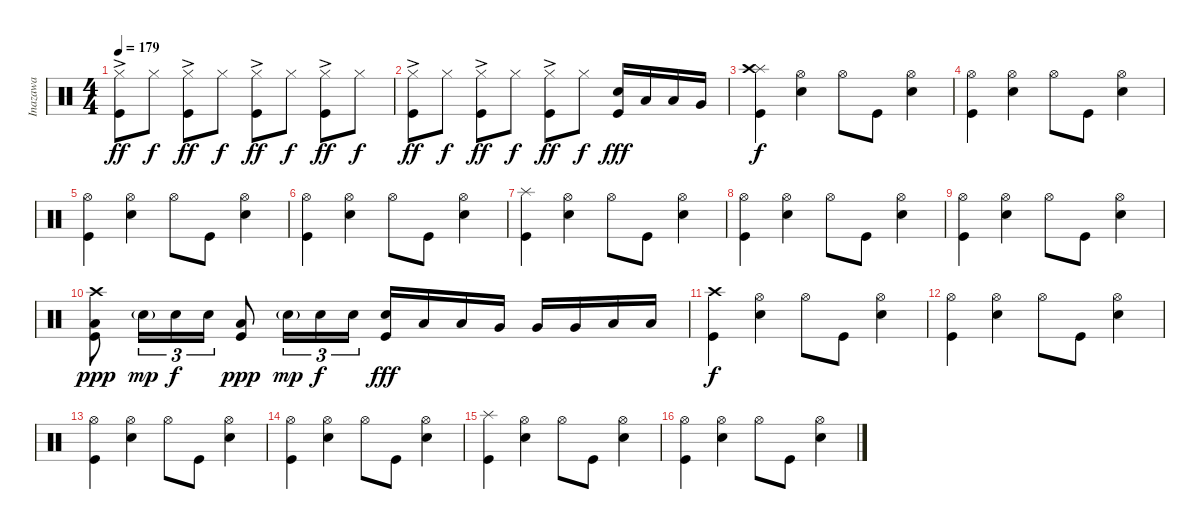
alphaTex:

\track ("Inazawa" "Inazawa") {instrument percussion}
\staff {score}
\articulation defaults
\ts (4 4)
\tempo 179
\clef neutral
\ks c
("Hi-Hat (closed)"{ac} "Kick (hit)").8{dy ff} "Hi-Hat (closed)".8{dy f} ("Hi-Hat (closed)"{ac} "Kick (hit)").8{dy ff} "Hi-Hat (closed)".8{dy f} ("Hi-Hat (closed)"{ac} "Kick (hit)").8{dy ff} "Hi-Hat (closed)".8{dy f} ("Hi-Hat (closed)"{ac} "Kick (hit)").8{dy ff} "Hi-Hat (closed)".8{dy f} |
("Hi-Hat (closed)"{ac} "Kick (hit)").8{dy ff} "Hi-Hat (closed)".8{dy f} ("Hi-Hat (closed)"{ac} "Kick (hit)").8{dy ff} "Hi-Hat (closed)".8{dy f} ("Hi-Hat (closed)"{ac} "Kick (hit)").8{dy ff} "Hi-Hat (closed)".8{dy f} ("Snare (hit) 2" "Kick (hit)").16{dy fff volume 14} "Low Tom (hit)".16 "Low Tom (hit)".16 "Very Low Tom (hit)".16 |
("Splash (hit)" "Crash high (hit)" "Kick (hit)").4{dy f} ("Hi-Hat (open)" "Snare (hit) 2").4 "Hi-Hat (open)".8 "Kick (hit)".8 ("Hi-Hat (open)" "Snare (hit) 2").4 |
("Hi-Hat (open)" "Kick (hit)").4 ("Hi-Hat (open)" "Snare (hit) 2").4 "Hi-Hat (open)".8 "Kick (hit)".8 ("Hi-Hat (open)" "Snare (hit) 2").4 |
("Hi-Hat (open)" "Kick (hit)").4 ("Hi-Hat (open)" "Snare (hit) 2").4 "Hi-Hat (open)".8 "Kick (hit)".8 ("Hi-Hat (open)" "Snare (hit) 2").4 |
("Hi-Hat (open)" "Kick (hit)").4 ("Hi-Hat (open)" "Snare (hit) 2").4 "Hi-Hat (open)".8 "Kick (hit)".8 ("Hi-Hat (open)" "Snare (hit) 2").4 |
("Splash (hit)" "Kick (hit)").4 ("Hi-Hat (open)" "Snare (hit) 2").4 "Hi-Hat (open)".8 "Kick (hit)".8 ("Hi-Hat (open)" "Snare (hit) 2").4 |
("Hi-Hat (open)" "Kick (hit)").4 ("Hi-Hat (open)" "Snare (hit) 2").4 "Hi-Hat (open)".8 "Kick (hit)".8 ("Hi-Hat (open)" "Snare (hit) 2").4 |
("Hi-Hat (open)" "Kick (hit)").4 ("Hi-Hat (open)" "Snare (hit) 2").4 "Hi-Hat (open)".8 "Kick (hit)".8 ("Hi-Hat (open)" "Snare (hit) 2").4 |
("Crash high (hit)" "Low Tom (hit)" "Kick (hit)").8{dy ppp} "Snare (hit) 2"{g}.16{tu (3 2) dy mp} "Snare (hit) 2".16{tu (3 2) dy f} "Snare (hit) 2".16{tu (3 2)} ("Low Tom (hit)" "Kick (hit)").8{dy ppp} "Snare (hit) 2"{g}.16{tu (3 2) dy mp} "Snare (hit) 2".16{tu (3 2) dy f} "Snare (hit) 2".16{tu (3 2)} ("Snare (hit) 2" "Kick (hit)").16{dy fff} "Low Tom (hit)".16 "Low Tom (hit)".16 "Very Low Tom (hit)".16 "Very Low Tom (hit)".16 "Very Low Tom (hit)".16 "Low Floor Tom (hit)".16 "Low Floor Tom (hit)".16 |
("Crash high (hit)" "Kick (hit)").4{dy f} ("Hi-Hat (open)" "Snare (hit) 2").4 "Hi-Hat (open)".8 "Kick (hit)".8 ("Hi-Hat (open)" "Snare (hit) 2").4 |
("Hi-Hat (open)" "Kick (hit)").4 ("Hi-Hat (open)" "Snare (hit) 2").4 "Hi-Hat (open)".8 "Kick (hit)".8 ("Hi-Hat (open)" "Snare (hit) 2").4 |
("Hi-Hat (open)" "Kick (hit)").4 ("Hi-Hat (open)" "Snare (hit) 2").4 "Hi-Hat (open)".8 "Kick (hit)".8 ("Hi-Hat (open)" "Snare (hit) 2").4 |
("Hi-Hat (open)" "Kick (hit)").4 ("Hi-Hat (open)" "Snare (hit) 2").4 "Hi-Hat (open)".8 "Kick (hit)".8 ("Hi-Hat (open)" "Snare (hit) 2").4 |
("Splash (hit)" "Kick (hit)").4 ("Hi-Hat (open)" "Snare (hit) 2").4 "Hi-Hat (open)".8 "Kick (hit)".8 ("Hi-Hat (open)" "Snare (hit) 2").4 |
("Hi-Hat (open)" "Kick (hit)").4 ("Hi-Hat (open)" "Snare (hit) 2").4 "Hi-Hat (open)".8 "Kick (hit)".8 ("Hi-Hat (open)" "Snare (hit) 2").4
